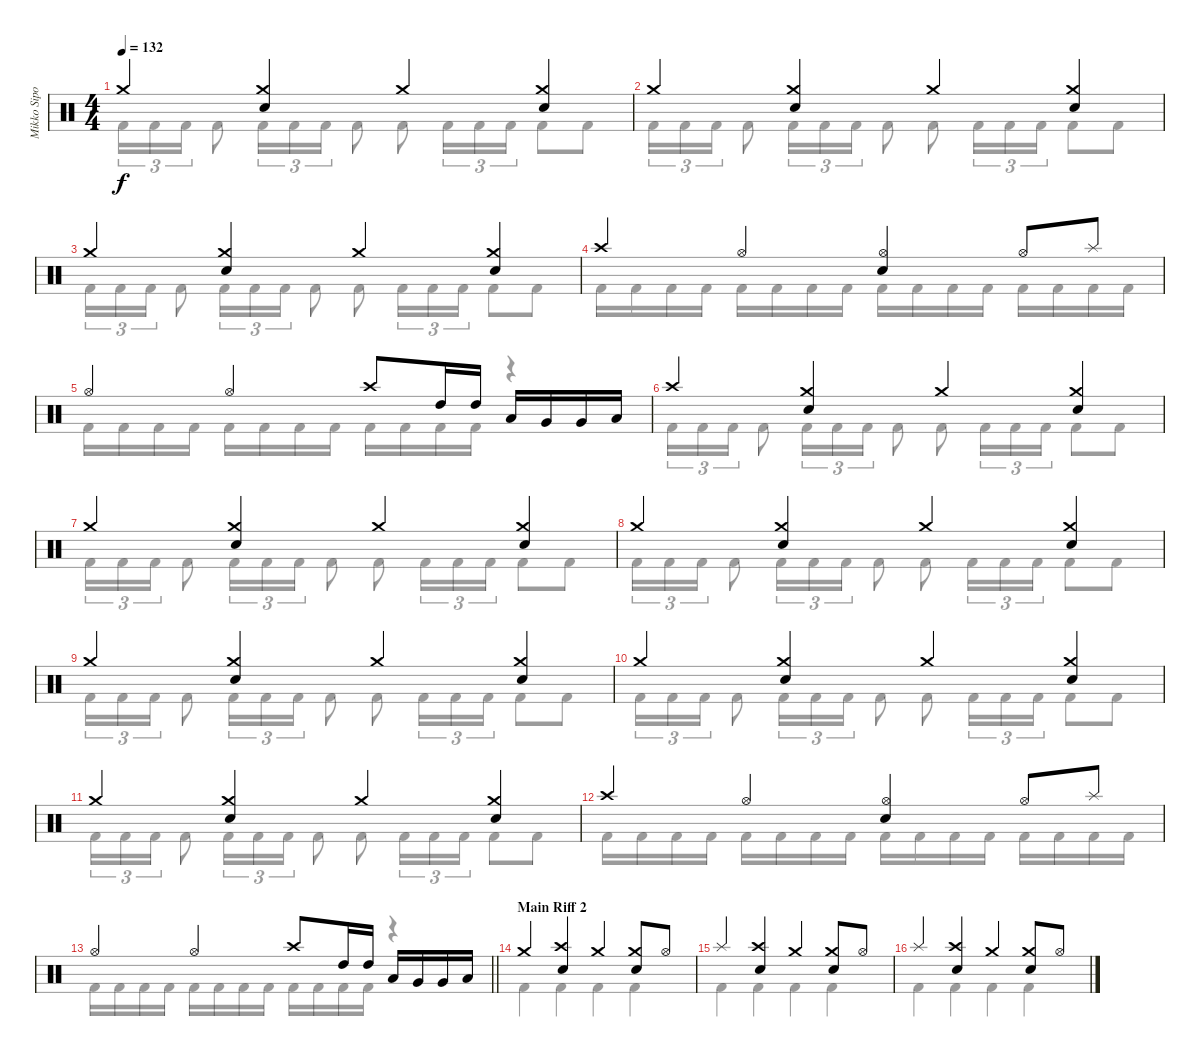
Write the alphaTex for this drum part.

\track ("Mikko Sipola (drums)" "Mikko Sipo") {instrument percussion}
\staff {score}
\articulation defaults
\voice
\ts (4 4)
\tempo 132
\clef neutral
\ks c "Crash medium (hit)".4{dy f}
("Crash medium (hit)" "Electric Snare (hit)").4 "Crash medium (hit)".4 ("Crash medium (hit)" "Electric Snare (hit)").4 |
"Crash medium (hit)".4 ("Crash medium (hit)" "Electric Snare (hit)").4 "Crash medium (hit)".4 ("Crash medium (hit)" "Electric Snare (hit)").4 |
"Crash medium (hit)".4 ("Crash medium (hit)" "Electric Snare (hit)").4 "Crash medium (hit)".4 ("Crash medium (hit)" "Electric Snare (hit)").4 |
"Crash high (hit)".4 "Hi-Hat (open)".4 ("Hi-Hat (open)" "Electric Snare (hit)").4 "Hi-Hat (open)".8 "Splash (hit)".8 |
"Hi-Hat (open)".4 "Hi-Hat (open)".4 "Crash high (hit)".8 "High Tom (hit)".16 "High Tom (hit)".16 "Low Tom (hit)".16 "Very Low Tom (hit)".16 "Very Low Tom (hit)".16 "Low Floor Tom (hit)".16 |
"Crash high (hit)".4 ("Crash medium (hit)" "Electric Snare (hit)").4 "Crash medium (hit)".4 ("Crash medium (hit)" "Electric Snare (hit)").4 |
"Crash medium (hit)".4 ("Crash medium (hit)" "Electric Snare (hit)").4 "Crash medium (hit)".4 ("Crash medium (hit)" "Electric Snare (hit)").4 |
"Crash medium (hit)".4 ("Crash medium (hit)" "Electric Snare (hit)").4 "Crash medium (hit)".4 ("Crash medium (hit)" "Electric Snare (hit)").4 |
"Crash medium (hit)".4 ("Crash medium (hit)" "Electric Snare (hit)").4 "Crash medium (hit)".4 ("Crash medium (hit)" "Electric Snare (hit)").4 |
"Crash medium (hit)".4 ("Crash medium (hit)" "Electric Snare (hit)").4 "Crash medium (hit)".4 ("Crash medium (hit)" "Electric Snare (hit)").4 |
"Crash medium (hit)".4 ("Crash medium (hit)" "Electric Snare (hit)").4 "Crash medium (hit)".4 ("Crash medium (hit)" "Electric Snare (hit)").4 |
"Crash high (hit)".4 "Hi-Hat (open)".4 ("Hi-Hat (open)" "Electric Snare (hit)").4 "Hi-Hat (open)".8 "Splash (hit)".8 |
\barLineRight lightlight "Hi-Hat (open)".4 "Hi-Hat (open)".4 "Crash high (hit)".8 "High Tom (hit)".16 "High Tom (hit)".16 "Low Tom (hit)".16 "Very Low Tom (hit)".16 "Very Low Tom (hit)".16 "Low Floor Tom (hit)".16
|
\section ("" "Main Riff 2")
"Crash medium (hit)".4 ("Electric Snare (hit)" "Crash high (hit)").4 "Crash medium (hit)".4 ("Electric Snare (hit)" "Crash medium (hit)").8 "Hi-Hat (open)".8 |
"Splash (hit)".4 ("Electric Snare (hit)" "Crash high (hit)").4 "Crash medium (hit)".4 ("Electric Snare (hit)" "Crash medium (hit)").8 "Hi-Hat (open)".8 |
"Splash (hit)".4 ("Electric Snare (hit)" "Crash high (hit)").4 "Crash medium (hit)".4 ("Electric Snare (hit)" "Crash medium (hit)").8 "Hi-Hat (open)".8
\voice
\clef neutral
\ottava regular
\simile none
\ks c "Kick (hit) 2".16{tu (3 2) dy f} "Kick (hit) 2".16{tu (3 2)} "Kick (hit) 2".16{tu (3 2)} "Kick (hit) 2".8 "Kick (hit) 2".16{tu (3 2)} "Kick (hit) 2".16{tu (3 2)} "Kick (hit) 2".16{tu (3 2)} "Kick (hit) 2".8 "Kick (hit) 2".8 "Kick (hit) 2".16{tu (3 2)} "Kick (hit) 2".16{tu (3 2)} "Kick (hit) 2".16{tu (3 2)} "Kick (hit) 2".8 "Kick (hit) 2".8
|
"Kick (hit) 2".16{tu (3 2)} "Kick (hit) 2".16{tu (3 2)} "Kick (hit) 2".16{tu (3 2)} "Kick (hit) 2".8 "Kick (hit) 2".16{tu (3 2)} "Kick (hit) 2".16{tu (3 2)} "Kick (hit) 2".16{tu (3 2)} "Kick (hit) 2".8 "Kick (hit) 2".8 "Kick (hit) 2".16{tu (3 2)} "Kick (hit) 2".16{tu (3 2)} "Kick (hit) 2".16{tu (3 2)} "Kick (hit) 2".8 "Kick (hit) 2".8 |
"Kick (hit) 2".16{tu (3 2)} "Kick (hit) 2".16{tu (3 2)} "Kick (hit) 2".16{tu (3 2)} "Kick (hit) 2".8 "Kick (hit) 2".16{tu (3 2)} "Kick (hit) 2".16{tu (3 2)} "Kick (hit) 2".16{tu (3 2)} "Kick (hit) 2".8 "Kick (hit) 2".8 "Kick (hit) 2".16{tu (3 2)} "Kick (hit) 2".16{tu (3 2)} "Kick (hit) 2".16{tu (3 2)} "Kick (hit) 2".8 "Kick (hit) 2".8 |
"Kick (hit) 2".16 "Kick (hit) 2".16 "Kick (hit) 2".16 "Kick (hit) 2".16 "Kick (hit) 2".16 "Kick (hit) 2".16 "Kick (hit) 2".16 "Kick (hit) 2".16 "Kick (hit) 2".16 "Kick (hit) 2".16 "Kick (hit) 2".16 "Kick (hit) 2".16 "Kick (hit) 2".16 "Kick (hit) 2".16 "Kick (hit) 2".16 "Kick (hit) 2".16 |
"Kick (hit) 2".16 "Kick (hit) 2".16 "Kick (hit) 2".16 "Kick (hit) 2".16 "Kick (hit) 2".16 "Kick (hit) 2".16 "Kick (hit) 2".16 "Kick (hit) 2".16 "Kick (hit) 2".16 "Kick (hit) 2".16 "Kick (hit) 2".16 "Kick (hit) 2".16 r.4 |
"Kick (hit) 2".16{tu (3 2)} "Kick (hit) 2".16{tu (3 2)} "Kick (hit) 2".16{tu (3 2)} "Kick (hit) 2".8 "Kick (hit) 2".16{tu (3 2)} "Kick (hit) 2".16{tu (3 2)} "Kick (hit) 2".16{tu (3 2)} "Kick (hit) 2".8 "Kick (hit) 2".8 "Kick (hit) 2".16{tu (3 2)} "Kick (hit) 2".16{tu (3 2)} "Kick (hit) 2".16{tu (3 2)} "Kick (hit) 2".8 "Kick (hit) 2".8 |
"Kick (hit) 2".16{tu (3 2)} "Kick (hit) 2".16{tu (3 2)} "Kick (hit) 2".16{tu (3 2)} "Kick (hit) 2".8 "Kick (hit) 2".16{tu (3 2)} "Kick (hit) 2".16{tu (3 2)} "Kick (hit) 2".16{tu (3 2)} "Kick (hit) 2".8 "Kick (hit) 2".8 "Kick (hit) 2".16{tu (3 2)} "Kick (hit) 2".16{tu (3 2)} "Kick (hit) 2".16{tu (3 2)} "Kick (hit) 2".8 "Kick (hit) 2".8 |
"Kick (hit) 2".16{tu (3 2)} "Kick (hit) 2".16{tu (3 2)} "Kick (hit) 2".16{tu (3 2)} "Kick (hit) 2".8 "Kick (hit) 2".16{tu (3 2)} "Kick (hit) 2".16{tu (3 2)} "Kick (hit) 2".16{tu (3 2)} "Kick (hit) 2".8 "Kick (hit) 2".8 "Kick (hit) 2".16{tu (3 2)} "Kick (hit) 2".16{tu (3 2)} "Kick (hit) 2".16{tu (3 2)} "Kick (hit) 2".8 "Kick (hit) 2".8 |
"Kick (hit) 2".16{tu (3 2)} "Kick (hit) 2".16{tu (3 2)} "Kick (hit) 2".16{tu (3 2)} "Kick (hit) 2".8 "Kick (hit) 2".16{tu (3 2)} "Kick (hit) 2".16{tu (3 2)} "Kick (hit) 2".16{tu (3 2)} "Kick (hit) 2".8 "Kick (hit) 2".8 "Kick (hit) 2".16{tu (3 2)} "Kick (hit) 2".16{tu (3 2)} "Kick (hit) 2".16{tu (3 2)} "Kick (hit) 2".8 "Kick (hit) 2".8 |
"Kick (hit) 2".16{tu (3 2)} "Kick (hit) 2".16{tu (3 2)} "Kick (hit) 2".16{tu (3 2)} "Kick (hit) 2".8 "Kick (hit) 2".16{tu (3 2)} "Kick (hit) 2".16{tu (3 2)} "Kick (hit) 2".16{tu (3 2)} "Kick (hit) 2".8 "Kick (hit) 2".8 "Kick (hit) 2".16{tu (3 2)} "Kick (hit) 2".16{tu (3 2)} "Kick (hit) 2".16{tu (3 2)} "Kick (hit) 2".8 "Kick (hit) 2".8 |
"Kick (hit) 2".16{tu (3 2)} "Kick (hit) 2".16{tu (3 2)} "Kick (hit) 2".16{tu (3 2)} "Kick (hit) 2".8 "Kick (hit) 2".16{tu (3 2)} "Kick (hit) 2".16{tu (3 2)} "Kick (hit) 2".16{tu (3 2)} "Kick (hit) 2".8 "Kick (hit) 2".8 "Kick (hit) 2".16{tu (3 2)} "Kick (hit) 2".16{tu (3 2)} "Kick (hit) 2".16{tu (3 2)} "Kick (hit) 2".8 "Kick (hit) 2".8 |
"Kick (hit) 2".16 "Kick (hit) 2".16 "Kick (hit) 2".16 "Kick (hit) 2".16 "Kick (hit) 2".16 "Kick (hit) 2".16 "Kick (hit) 2".16 "Kick (hit) 2".16 "Kick (hit) 2".16 "Kick (hit) 2".16 "Kick (hit) 2".16 "Kick (hit) 2".16 "Kick (hit) 2".16 "Kick (hit) 2".16 "Kick (hit) 2".16 "Kick (hit) 2".16 |
\barLineRight lightlight "Kick (hit) 2".16 "Kick (hit) 2".16 "Kick (hit) 2".16 "Kick (hit) 2".16 "Kick (hit) 2".16 "Kick (hit) 2".16 "Kick (hit) 2".16 "Kick (hit) 2".16 "Kick (hit) 2".16 "Kick (hit) 2".16 "Kick (hit) 2".16 "Kick (hit) 2".16
r.4 |
"Kick (hit) 2".4 "Kick (hit) 2".4 "Kick (hit) 2".4 "Kick (hit) 2".4 |
"Kick (hit) 2".4 "Kick (hit) 2".4 "Kick (hit) 2".4 "Kick (hit) 2".4 |
"Kick (hit) 2".4 "Kick (hit) 2".4 "Kick (hit) 2".4 "Kick (hit) 2".4
